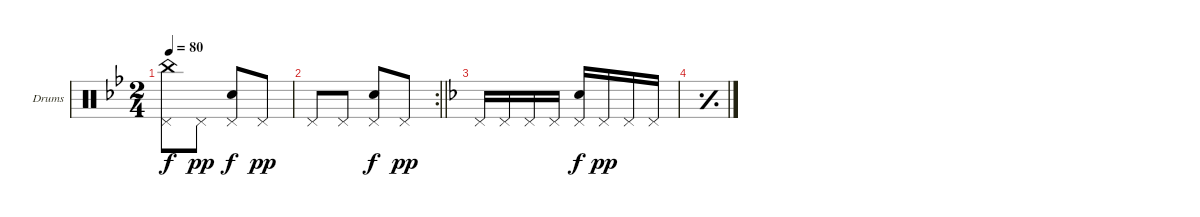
\defaultSystemsLayout 4
\bracketExtendMode groupsimilarinstruments
\firstSystemTrackNameOrientation horizontal
\otherSystemsTrackNameOrientation horizontal
\track ("Drumkit" "Drums") {instrument percussion}
\staff {score}
\articulation defaults
\ts (2 4)
\tempo 80
\clef neutral
\scale
0.321839
\ks bb
("Pedal Hi-Hat (hit)" "China (hit)").8{dy f} "Pedal Hi-Hat (hit)".8{dy pp} ("Pedal Hi-Hat (hit)" "Snare (hit) 2").8{dy f} "Pedal Hi-Hat (hit)".8{dy pp} |
\rc 2
\scale
0.356322
\barLineRight lightlight "Pedal Hi-Hat (hit)".8 "Pedal Hi-Hat (hit)".8
("Pedal Hi-Hat (hit)" "Snare (hit) 2").8{dy f} "Pedal Hi-Hat (hit)".8{dy pp} |
\scale
0.45098
\ks f "Pedal Hi-Hat (hit)".16 "Pedal Hi-Hat (hit)".16 "Pedal Hi-Hat (hit)".16 "Pedal Hi-Hat (hit)".16
("Pedal Hi-Hat (hit)" "Snare (hit) 2").16{dy f} "Pedal Hi-Hat (hit)".16{dy pp} "Pedal Hi-Hat (hit)".16 "Pedal Hi-Hat (hit)".16 |
\simile simple
\scale
0.27451 |
\scale
0.27451 |
\scale
0.333333 |
\scale
0.333333 |
\scale
0.333333 |
\scale
0.333333 |
\scale
0.333333 |
\scale
0.333333 |
\scale
0.333333 |
\scale
0.333333 |
\scale
0.333333 |
\scale
0.333333 |
\scale
0.333333
